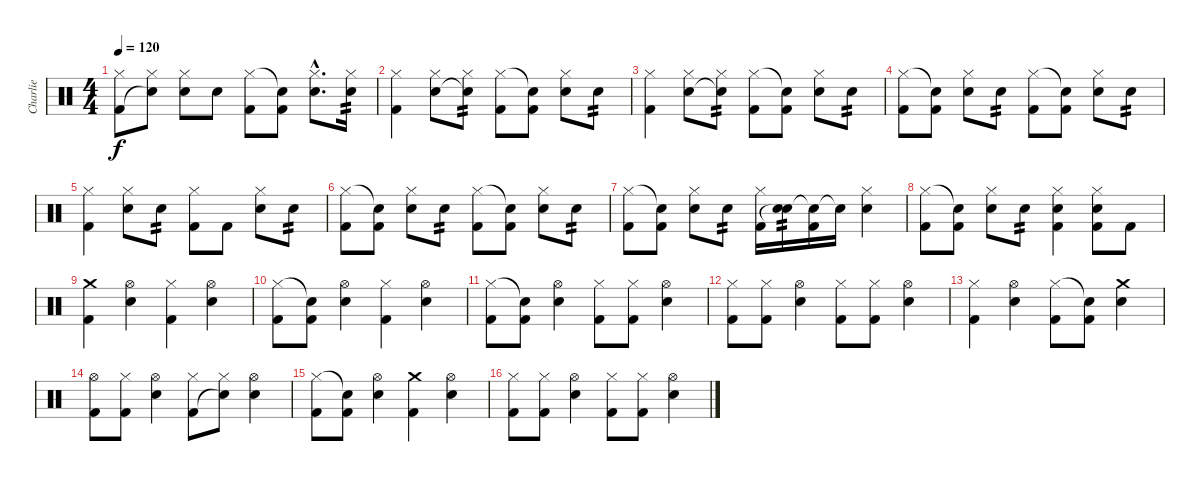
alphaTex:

\track ("Charlie" "Charlie") {instrument percussion}
\staff {score}
\articulation defaults
\ts (4 4)
\tempo 120
\clef neutral
\ks c
("Hi-Hat (closed)" "Kick (hit) 2").8{dy f} ("Hi-Hat (closed)" "Snare (hit)"{t}).8 ("Hi-Hat (closed)" "Snare (hit) 2").8 "Snare (hit) 2".8 ("Hi-Hat (closed)" "Kick (hit) 2").8 ("Snare (hit)"{t} "Kick (hit) 2").8 ("Hi-Hat (closed)"{hac} "Snare (hit) 2"{hac}).8{d} ("Hi-Hat (closed)" "Snare (hit) 2").16{tp 2} |
("Hi-Hat (closed)" "Kick (hit) 2").4 ("Hi-Hat (closed)" "Snare (hit) 2").8 ("Hi-Hat (closed)" "Snare (hit)"{t}).8{tp 2} ("Hi-Hat (closed)" "Kick (hit) 2").8 ("Snare (hit)"{t} "Kick (hit) 2").8 ("Hi-Hat (closed)" "Snare (hit) 2").8 "Snare (hit) 2".8{tp 2} |
("Hi-Hat (closed)" "Kick (hit) 2").4 ("Hi-Hat (closed)" "Snare (hit) 2").8 ("Hi-Hat (closed)" "Snare (hit)"{t}).8{tp 2} ("Hi-Hat (closed)" "Kick (hit) 2").8 ("Snare (hit)"{t} "Kick (hit) 2").8 ("Hi-Hat (closed)" "Snare (hit) 2").8 "Snare (hit) 2".8{tp 2} |
("Hi-Hat (closed)" "Kick (hit) 2").8 ("Snare (hit)"{t} "Kick (hit) 2").8 ("Hi-Hat (closed)" "Snare (hit) 2").8 "Snare (hit) 2".8{tp 2} ("Hi-Hat (closed)" "Kick (hit) 2").8 ("Snare (hit)"{t} "Kick (hit) 2").8 ("Hi-Hat (closed)" "Snare (hit) 2").8 "Snare (hit) 2".8{tp 2} |
("Hi-Hat (closed)" "Kick (hit) 2").4 ("Hi-Hat (closed)" "Snare (hit) 2").8 "Snare (hit) 2".8{tp 2} ("Hi-Hat (closed)" "Kick (hit) 2").8 "Kick (hit) 2".8 ("Hi-Hat (closed)" "Snare (hit) 2").8 "Snare (hit) 2".8{tp 2} |
("Hi-Hat (closed)" "Kick (hit) 2").8 ("Snare (hit)"{t} "Kick (hit) 2").8 ("Hi-Hat (closed)" "Snare (hit) 2").8 "Snare (hit) 2".8{tp 2} ("Hi-Hat (closed)" "Kick (hit) 2").8 ("Snare (hit)"{t} "Kick (hit) 2").8 ("Hi-Hat (closed)" "Snare (hit) 2").8 "Snare (hit) 2".8{tp 2} |
("Hi-Hat (closed)" "Kick (hit) 2").8 ("Snare (hit)"{t} "Kick (hit) 2").8 ("Hi-Hat (closed)" "Snare (hit) 2").8 "Snare (hit) 2".8{tp 2} ("Hi-Hat (closed)" "Kick (hit) 2").16 ("Snare (hit) 2" "Snare (hit)"{t}).16{tp 2} ("Snare (hit)"{t} "Kick (hit) 2").16 "Snare (hit)"{t}.16 ("Hi-Hat (closed)" "Snare (hit) 2").4 |
("Hi-Hat (closed)" "Kick (hit) 2").8 ("Snare (hit)"{t} "Kick (hit) 2").8 ("Hi-Hat (closed)" "Snare (hit) 2").8 "Snare (hit) 2".8{tp 2} ("Hi-Hat (closed)" "Snare (hit) 2" "Kick (hit) 2").4 ("Hi-Hat (closed)" "Snare (hit) 2" "Kick (hit) 2").8 "Kick (hit) 2".8 |
("Crash medium (hit)" "Kick (hit) 2").4 ("Hi-Hat (open)" "Snare (hit) 2").4 ("Hi-Hat (closed)" "Kick (hit) 2").4 ("Hi-Hat (open)" "Snare (hit) 2").4 |
("Hi-Hat (closed)" "Kick (hit) 2").8 ("Snare (hit)"{t} "Kick (hit) 2").8 ("Hi-Hat (open)" "Snare (hit) 2").4 ("Hi-Hat (closed)" "Kick (hit) 2").4 ("Hi-Hat (open)" "Snare (hit) 2").4 |
("Hi-Hat (closed)" "Kick (hit) 2").8 ("Snare (hit)"{t} "Kick (hit) 2").8 ("Hi-Hat (open)" "Snare (hit) 2").4 ("Hi-Hat (closed)" "Kick (hit) 2").8 ("Hi-Hat (closed)" "Kick (hit) 2").8 ("Hi-Hat (open)" "Snare (hit) 2").4 |
("Hi-Hat (closed)" "Kick (hit) 2").8 ("Hi-Hat (closed)" "Kick (hit) 2").8 ("Hi-Hat (open)" "Snare (hit) 2").4 ("Hi-Hat (closed)" "Kick (hit) 2").8 ("Hi-Hat (closed)" "Kick (hit) 2").8 ("Hi-Hat (open)" "Snare (hit) 2").4 |
("Hi-Hat (closed)" "Kick (hit) 2").4 ("Hi-Hat (open)" "Snare (hit) 2").4 ("Hi-Hat (closed)" "Kick (hit) 2").8 ("Snare (hit)"{t} "Kick (hit) 2").8 ("Crash medium (hit)" "Snare (hit) 2").4 |
("Hi-Hat (open)" "Kick (hit) 2").8 ("Hi-Hat (closed)" "Kick (hit) 2").8 ("Hi-Hat (open)" "Snare (hit) 2").4 ("Hi-Hat (closed)" "Kick (hit) 2").8 ("Hi-Hat (closed)" "Snare (hit)"{t}).8 ("Hi-Hat (open)" "Snare (hit) 2").4 |
("Hi-Hat (closed)" "Kick (hit) 2").8 ("Snare (hit)"{t} "Kick (hit) 2").8 ("Hi-Hat (open)" "Snare (hit) 2").4 ("Crash medium (hit)" "Kick (hit) 2").4 ("Hi-Hat (open)" "Snare (hit) 2").4 |
("Hi-Hat (closed)" "Kick (hit) 2").8 ("Hi-Hat (closed)" "Kick (hit) 2").8 ("Hi-Hat (open)" "Snare (hit) 2").4 ("Hi-Hat (closed)" "Kick (hit) 2").8 ("Hi-Hat (closed)" "Kick (hit) 2").8 ("Hi-Hat (open)" "Snare (hit) 2").4
